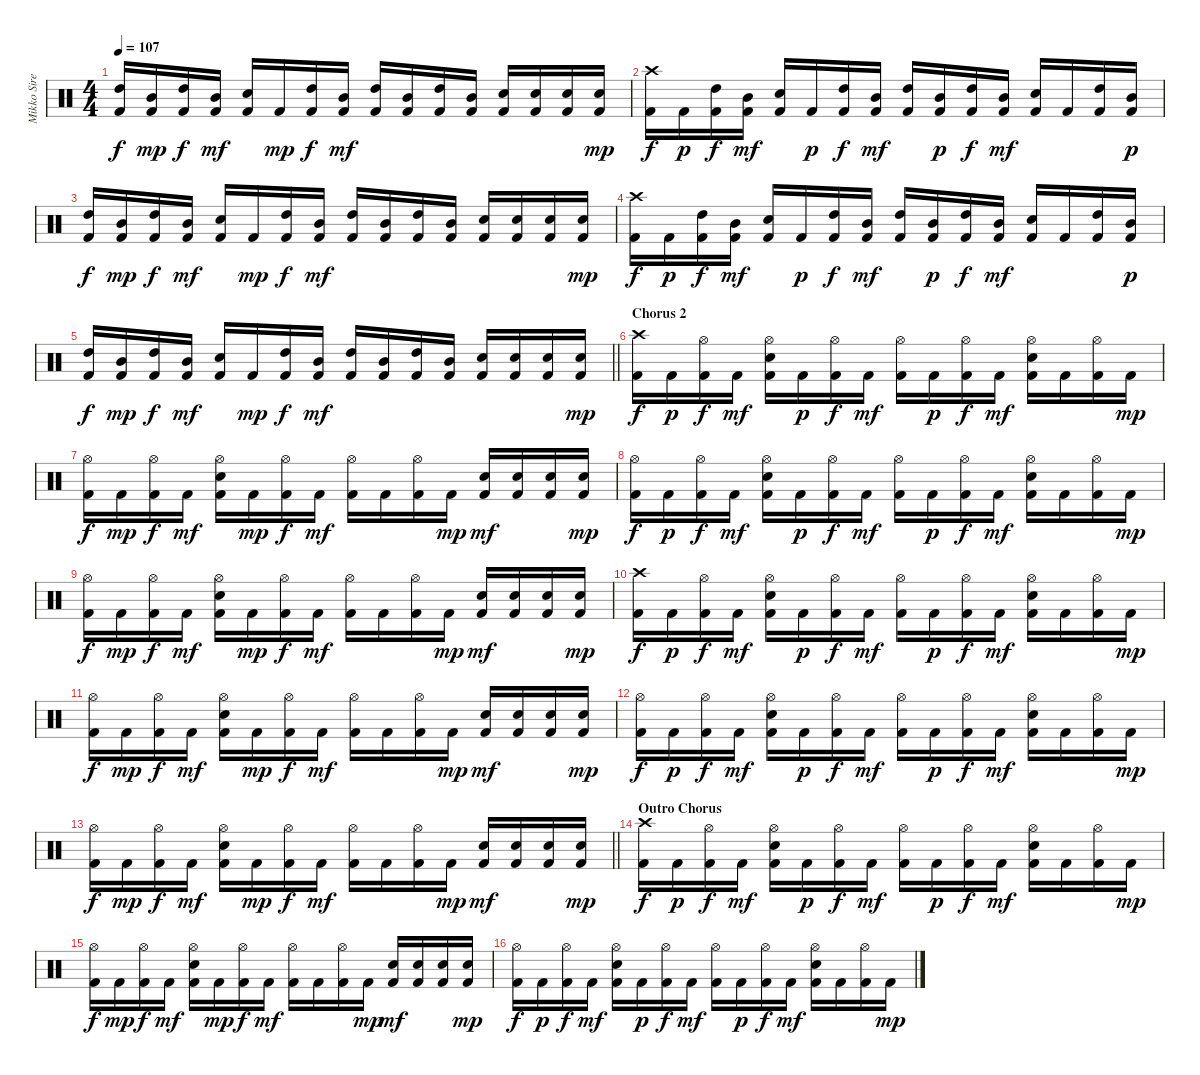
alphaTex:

\track ("Mikko Siren" "Mikko Sire") {instrument percussion}
\staff {score}
\articulation defaults
\ts (4 4)
\tempo 107
\clef neutral
\ks c
("Kick (hit) 2" "High Tom (hit)").16{dy f} ("Kick (hit) 2" "Mid Tom (hit)").16{dy mp} ("Kick (hit) 2" "High Tom (hit)").16{dy f} ("Kick (hit) 2" "Mid Tom (hit)").16{dy mf} ("Kick (hit) 2" "Electric Snare (hit)").16 "Kick (hit) 2".16{dy mp} ("Kick (hit) 2" "High Tom (hit)").16{dy f} ("Kick (hit) 2" "Mid Tom (hit)").16{dy mf} ("Kick (hit) 2" "High Tom (hit)").16 ("Kick (hit) 2" "Mid Tom (hit)").16 ("Kick (hit) 2" "High Tom (hit)").16 ("Kick (hit) 2" "Mid Tom (hit)").16 ("Kick (hit) 2" "Electric Snare (hit)").16 ("Kick (hit) 2" "Electric Snare (hit)").16 ("Kick (hit) 2" "Electric Snare (hit)").16 ("Kick (hit) 2" "Electric Snare (hit)").16{dy mp} |
("Kick (hit) 2" "Crash high (hit)").16{dy f} "Kick (hit) 2".16{dy p} ("Kick (hit) 2" "High Tom (hit)").16{dy f} ("Kick (hit) 2" "Mid Tom (hit)").16{dy mf} ("Kick (hit) 2" "Electric Snare (hit)").16 "Kick (hit) 2".16{dy p} ("Kick (hit) 2" "High Tom (hit)").16{dy f} ("Kick (hit) 2" "Mid Tom (hit)").16{dy mf} ("Kick (hit) 2" "High Tom (hit)").16 ("Kick (hit) 2" "Mid Tom (hit)").16{dy p} ("Kick (hit) 2" "High Tom (hit)").16{dy f} ("Kick (hit) 2" "Mid Tom (hit)").16{dy mf} ("Kick (hit) 2" "Electric Snare (hit)").16 "Kick (hit) 2".16 ("Kick (hit) 2" "High Tom (hit)").16 ("Kick (hit) 2" "Mid Tom (hit)").16{dy p} |
("Kick (hit) 2" "High Tom (hit)").16{dy f} ("Kick (hit) 2" "Mid Tom (hit)").16{dy mp} ("Kick (hit) 2" "High Tom (hit)").16{dy f} ("Kick (hit) 2" "Mid Tom (hit)").16{dy mf} ("Kick (hit) 2" "Electric Snare (hit)").16 "Kick (hit) 2".16{dy mp} ("Kick (hit) 2" "High Tom (hit)").16{dy f} ("Kick (hit) 2" "Mid Tom (hit)").16{dy mf} ("Kick (hit) 2" "High Tom (hit)").16 ("Kick (hit) 2" "Mid Tom (hit)").16 ("Kick (hit) 2" "High Tom (hit)").16 ("Kick (hit) 2" "Mid Tom (hit)").16 ("Kick (hit) 2" "Electric Snare (hit)").16 ("Kick (hit) 2" "Electric Snare (hit)").16 ("Kick (hit) 2" "Electric Snare (hit)").16 ("Kick (hit) 2" "Electric Snare (hit)").16{dy mp} |
("Kick (hit) 2" "Crash high (hit)").16{dy f} "Kick (hit) 2".16{dy p} ("Kick (hit) 2" "High Tom (hit)").16{dy f} ("Kick (hit) 2" "Mid Tom (hit)").16{dy mf} ("Kick (hit) 2" "Electric Snare (hit)").16 "Kick (hit) 2".16{dy p} ("Kick (hit) 2" "High Tom (hit)").16{dy f} ("Kick (hit) 2" "Mid Tom (hit)").16{dy mf} ("Kick (hit) 2" "High Tom (hit)").16 ("Kick (hit) 2" "Mid Tom (hit)").16{dy p} ("Kick (hit) 2" "High Tom (hit)").16{dy f} ("Kick (hit) 2" "Mid Tom (hit)").16{dy mf} ("Kick (hit) 2" "Electric Snare (hit)").16 "Kick (hit) 2".16 ("Kick (hit) 2" "High Tom (hit)").16 ("Kick (hit) 2" "Mid Tom (hit)").16{dy p} |
\barLineRight lightlight
("Kick (hit) 2" "High Tom (hit)").16{dy f} ("Kick (hit) 2" "Mid Tom (hit)").16{dy mp} ("Kick (hit) 2" "High Tom (hit)").16{dy f} ("Kick (hit) 2" "Mid Tom (hit)").16{dy mf} ("Kick (hit) 2" "Electric Snare (hit)").16 "Kick (hit) 2".16{dy mp} ("Kick (hit) 2" "High Tom (hit)").16{dy f} ("Kick (hit) 2" "Mid Tom (hit)").16{dy mf} ("Kick (hit) 2" "High Tom (hit)").16 ("Kick (hit) 2" "Mid Tom (hit)").16 ("Kick (hit) 2" "High Tom (hit)").16 ("Kick (hit) 2" "Mid Tom (hit)").16 ("Kick (hit) 2" "Electric Snare (hit)").16 ("Kick (hit) 2" "Electric Snare (hit)").16 ("Kick (hit) 2" "Electric Snare (hit)").16 ("Kick (hit) 2" "Electric Snare (hit)").16{dy mp} |
\section ("" "Chorus 2")
("Kick (hit) 2" "Crash high (hit)").16{dy f} "Kick (hit) 2".16{dy p} ("Kick (hit) 2" "Hi-Hat (open)").16{dy f} "Kick (hit) 2".16{dy mf} ("Kick (hit) 2" "Electric Snare (hit)" "Hi-Hat (open)").16 "Kick (hit) 2".16{dy p} ("Kick (hit) 2" "Hi-Hat (open)").16{dy f} "Kick (hit) 2".16{dy mf} ("Kick (hit) 2" "Hi-Hat (open)").16 "Kick (hit) 2".16{dy p} ("Kick (hit) 2" "Hi-Hat (open)").16{dy f} "Kick (hit) 2".16{dy mf} ("Kick (hit) 2" "Electric Snare (hit)" "Hi-Hat (open)").16 "Kick (hit) 2".16 ("Kick (hit) 2" "Hi-Hat (open)").16 "Kick (hit) 2".16{dy mp} |
("Kick (hit) 2" "Hi-Hat (open)").16{dy f} "Kick (hit) 2".16{dy mp} ("Kick (hit) 2" "Hi-Hat (open)").16{dy f} "Kick (hit) 2".16{dy mf} ("Kick (hit) 2" "Electric Snare (hit)" "Hi-Hat (open)").16 "Kick (hit) 2".16{dy mp} ("Kick (hit) 2" "Hi-Hat (open)").16{dy f} "Kick (hit) 2".16{dy mf} ("Kick (hit) 2" "Hi-Hat (open)").16 "Kick (hit) 2".16 ("Kick (hit) 2" "Hi-Hat (open)").16 "Kick (hit) 2".16{dy mp} ("Kick (hit) 2" "Electric Snare (hit)").16{dy mf} ("Kick (hit) 2" "Electric Snare (hit)").16 ("Kick (hit) 2" "Electric Snare (hit)").16 ("Kick (hit) 2" "Electric Snare (hit)").16{dy mp} |
("Kick (hit) 2" "Hi-Hat (open)").16{dy f} "Kick (hit) 2".16{dy p} ("Kick (hit) 2" "Hi-Hat (open)").16{dy f} "Kick (hit) 2".16{dy mf} ("Kick (hit) 2" "Electric Snare (hit)" "Hi-Hat (open)").16 "Kick (hit) 2".16{dy p} ("Kick (hit) 2" "Hi-Hat (open)").16{dy f} "Kick (hit) 2".16{dy mf} ("Kick (hit) 2" "Hi-Hat (open)").16 "Kick (hit) 2".16{dy p} ("Kick (hit) 2" "Hi-Hat (open)").16{dy f} "Kick (hit) 2".16{dy mf} ("Kick (hit) 2" "Electric Snare (hit)" "Hi-Hat (open)").16 "Kick (hit) 2".16 ("Kick (hit) 2" "Hi-Hat (open)").16 "Kick (hit) 2".16{dy mp} |
("Kick (hit) 2" "Hi-Hat (open)").16{dy f} "Kick (hit) 2".16{dy mp} ("Kick (hit) 2" "Hi-Hat (open)").16{dy f} "Kick (hit) 2".16{dy mf} ("Kick (hit) 2" "Electric Snare (hit)" "Hi-Hat (open)").16 "Kick (hit) 2".16{dy mp} ("Kick (hit) 2" "Hi-Hat (open)").16{dy f} "Kick (hit) 2".16{dy mf} ("Kick (hit) 2" "Hi-Hat (open)").16 "Kick (hit) 2".16 ("Kick (hit) 2" "Hi-Hat (open)").16 "Kick (hit) 2".16{dy mp} ("Kick (hit) 2" "Electric Snare (hit)").16{dy mf} ("Kick (hit) 2" "Electric Snare (hit)").16 ("Kick (hit) 2" "Electric Snare (hit)").16 ("Kick (hit) 2" "Electric Snare (hit)").16{dy mp} |
("Kick (hit) 2" "Crash high (hit)").16{dy f} "Kick (hit) 2".16{dy p} ("Kick (hit) 2" "Hi-Hat (open)").16{dy f} "Kick (hit) 2".16{dy mf} ("Kick (hit) 2" "Electric Snare (hit)" "Hi-Hat (open)").16 "Kick (hit) 2".16{dy p} ("Kick (hit) 2" "Hi-Hat (open)").16{dy f} "Kick (hit) 2".16{dy mf} ("Kick (hit) 2" "Hi-Hat (open)").16 "Kick (hit) 2".16{dy p} ("Kick (hit) 2" "Hi-Hat (open)").16{dy f} "Kick (hit) 2".16{dy mf} ("Kick (hit) 2" "Electric Snare (hit)" "Hi-Hat (open)").16 "Kick (hit) 2".16 ("Kick (hit) 2" "Hi-Hat (open)").16 "Kick (hit) 2".16{dy mp} |
("Kick (hit) 2" "Hi-Hat (open)").16{dy f} "Kick (hit) 2".16{dy mp} ("Kick (hit) 2" "Hi-Hat (open)").16{dy f} "Kick (hit) 2".16{dy mf} ("Kick (hit) 2" "Electric Snare (hit)" "Hi-Hat (open)").16 "Kick (hit) 2".16{dy mp} ("Kick (hit) 2" "Hi-Hat (open)").16{dy f} "Kick (hit) 2".16{dy mf} ("Kick (hit) 2" "Hi-Hat (open)").16 "Kick (hit) 2".16 ("Kick (hit) 2" "Hi-Hat (open)").16 "Kick (hit) 2".16{dy mp} ("Kick (hit) 2" "Electric Snare (hit)").16{dy mf} ("Kick (hit) 2" "Electric Snare (hit)").16 ("Kick (hit) 2" "Electric Snare (hit)").16 ("Kick (hit) 2" "Electric Snare (hit)").16{dy mp} |
("Kick (hit) 2" "Hi-Hat (open)").16{dy f} "Kick (hit) 2".16{dy p} ("Kick (hit) 2" "Hi-Hat (open)").16{dy f} "Kick (hit) 2".16{dy mf} ("Kick (hit) 2" "Electric Snare (hit)" "Hi-Hat (open)").16 "Kick (hit) 2".16{dy p} ("Kick (hit) 2" "Hi-Hat (open)").16{dy f} "Kick (hit) 2".16{dy mf} ("Kick (hit) 2" "Hi-Hat (open)").16 "Kick (hit) 2".16{dy p} ("Kick (hit) 2" "Hi-Hat (open)").16{dy f} "Kick (hit) 2".16{dy mf} ("Kick (hit) 2" "Electric Snare (hit)" "Hi-Hat (open)").16 "Kick (hit) 2".16 ("Kick (hit) 2" "Hi-Hat (open)").16 "Kick (hit) 2".16{dy mp} |
\barLineRight lightlight
("Kick (hit) 2" "Hi-Hat (open)").16{dy f} "Kick (hit) 2".16{dy mp} ("Kick (hit) 2" "Hi-Hat (open)").16{dy f} "Kick (hit) 2".16{dy mf} ("Kick (hit) 2" "Electric Snare (hit)" "Hi-Hat (open)").16 "Kick (hit) 2".16{dy mp} ("Kick (hit) 2" "Hi-Hat (open)").16{dy f} "Kick (hit) 2".16{dy mf} ("Kick (hit) 2" "Hi-Hat (open)").16 "Kick (hit) 2".16 ("Kick (hit) 2" "Hi-Hat (open)").16 "Kick (hit) 2".16{dy mp} ("Kick (hit) 2" "Electric Snare (hit)").16{dy mf} ("Kick (hit) 2" "Electric Snare (hit)").16 ("Kick (hit) 2" "Electric Snare (hit)").16 ("Kick (hit) 2" "Electric Snare (hit)").16{dy mp} |
\section ("" "Outro Chorus")
("Kick (hit) 2" "Crash high (hit)").16{dy f} "Kick (hit) 2".16{dy p} ("Kick (hit) 2" "Hi-Hat (open)").16{dy f} "Kick (hit) 2".16{dy mf} ("Kick (hit) 2" "Electric Snare (hit)" "Hi-Hat (open)").16 "Kick (hit) 2".16{dy p} ("Kick (hit) 2" "Hi-Hat (open)").16{dy f} "Kick (hit) 2".16{dy mf} ("Kick (hit) 2" "Hi-Hat (open)").16 "Kick (hit) 2".16{dy p} ("Kick (hit) 2" "Hi-Hat (open)").16{dy f} "Kick (hit) 2".16{dy mf} ("Kick (hit) 2" "Electric Snare (hit)" "Hi-Hat (open)").16 "Kick (hit) 2".16 ("Kick (hit) 2" "Hi-Hat (open)").16 "Kick (hit) 2".16{dy mp} |
("Kick (hit) 2" "Hi-Hat (open)").16{dy f} "Kick (hit) 2".16{dy mp} ("Kick (hit) 2" "Hi-Hat (open)").16{dy f} "Kick (hit) 2".16{dy mf} ("Kick (hit) 2" "Electric Snare (hit)" "Hi-Hat (open)").16 "Kick (hit) 2".16{dy mp} ("Kick (hit) 2" "Hi-Hat (open)").16{dy f} "Kick (hit) 2".16{dy mf} ("Kick (hit) 2" "Hi-Hat (open)").16 "Kick (hit) 2".16 ("Kick (hit) 2" "Hi-Hat (open)").16 "Kick (hit) 2".16{dy mp} ("Kick (hit) 2" "Electric Snare (hit)").16{dy mf} ("Kick (hit) 2" "Electric Snare (hit)").16 ("Kick (hit) 2" "Electric Snare (hit)").16 ("Kick (hit) 2" "Electric Snare (hit)").16{dy mp} |
("Kick (hit) 2" "Hi-Hat (open)").16{dy f} "Kick (hit) 2".16{dy p} ("Kick (hit) 2" "Hi-Hat (open)").16{dy f} "Kick (hit) 2".16{dy mf} ("Kick (hit) 2" "Electric Snare (hit)" "Hi-Hat (open)").16 "Kick (hit) 2".16{dy p} ("Kick (hit) 2" "Hi-Hat (open)").16{dy f} "Kick (hit) 2".16{dy mf} ("Kick (hit) 2" "Hi-Hat (open)").16 "Kick (hit) 2".16{dy p} ("Kick (hit) 2" "Hi-Hat (open)").16{dy f} "Kick (hit) 2".16{dy mf} ("Kick (hit) 2" "Electric Snare (hit)" "Hi-Hat (open)").16 "Kick (hit) 2".16 ("Kick (hit) 2" "Hi-Hat (open)").16 "Kick (hit) 2".16{dy mp}
